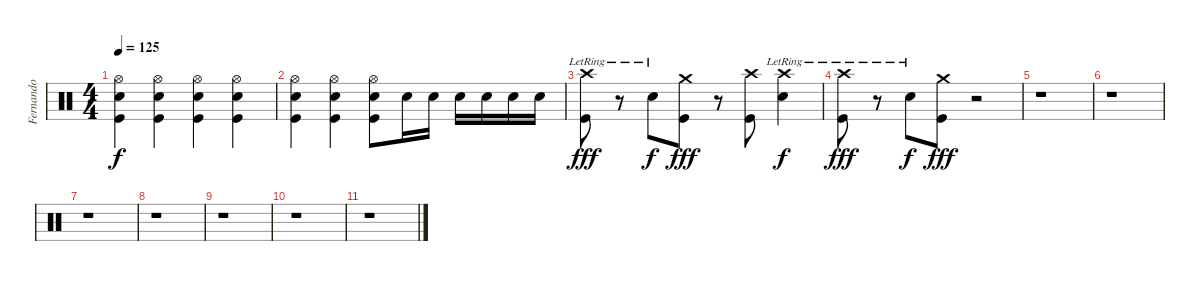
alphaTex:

\track ("Fernando" "Fernando") {instrument percussion}
\staff {score}
\articulation defaults
\ts (4 4)
\tempo 125
\clef neutral
\ks c
("Hi-Hat (open)" "Electric Snare (hit)" "Kick (hit)").4{dy f} ("Hi-Hat (open)" "Electric Snare (hit)" "Kick (hit)").4 ("Hi-Hat (open)" "Electric Snare (hit)" "Kick (hit)").4 ("Hi-Hat (open)" "Electric Snare (hit)" "Kick (hit)").4 |
("Hi-Hat (open)" "Electric Snare (hit)" "Kick (hit)").4 ("Hi-Hat (open)" "Electric Snare (hit)" "Kick (hit)").4 ("Hi-Hat (open)" "Electric Snare (hit)" "Kick (hit)").8 "Electric Snare (hit)".16 "Electric Snare (hit)".16 "Electric Snare (hit)".16 "Electric Snare (hit)".16 "Electric Snare (hit)".16 "Electric Snare (hit)".16 |
("Crash high (hit)" "Kick (hit)"{lr}).8{dy fff} r.8 "Electric Snare (hit)"{lr}.8{dy f} ("Crash medium (hit)" "Kick (hit)").8{dy fff} r.8 ("Crash high (hit)" "Kick (hit)").8 ("Crash high (hit)" "Electric Snare (hit)"{lr}).4{dy f} |
("Crash high (hit)" "Kick (hit)"{lr}).8{dy fff} r.8 "Electric Snare (hit)"{lr}.8{dy f} ("Crash medium (hit)" "Kick (hit)").8{dy fff} r.2 |
r.1 |
r.1 |
r.1 |
r.1 |
r.1 |
r.1 |
r.1
